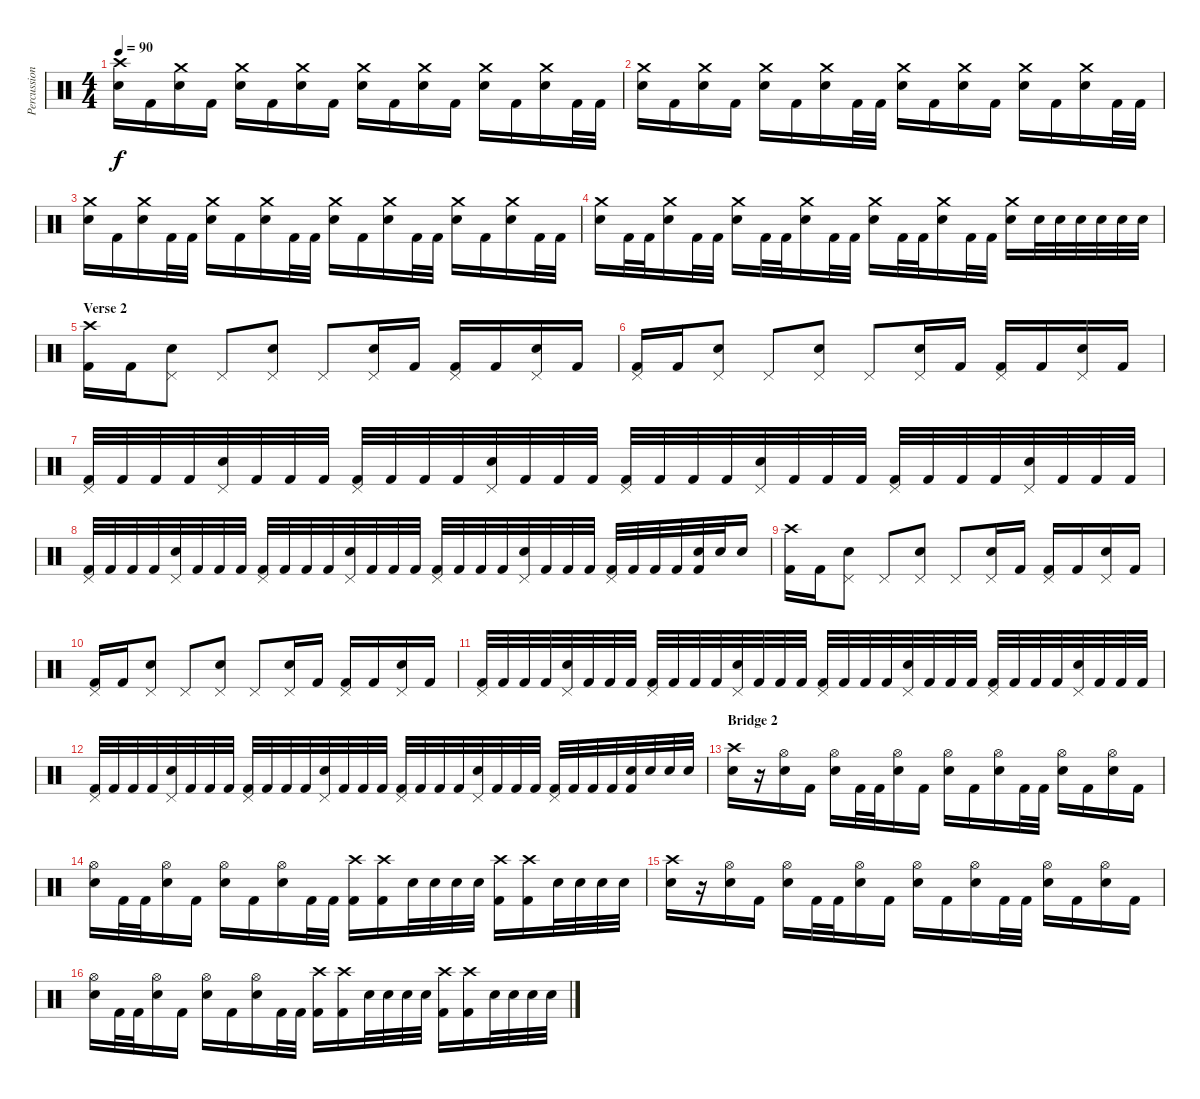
\track ("Percussion" "Percussion") {instrument percussion}
\staff {score}
\articulation defaults
\ts (4 4)
\tempo 90
\clef neutral
\ks c
("Electric Snare (hit)" "Crash high (hit)").16{dy f} "Kick (hit) 2".16 ("Electric Snare (hit)" "Crash medium (hit)").16 "Kick (hit) 2".16 ("Electric Snare (hit)" "Crash medium (hit)").16 "Kick (hit) 2".16 ("Electric Snare (hit)" "Crash medium (hit)").16 "Kick (hit) 2".16 ("Electric Snare (hit)" "Crash medium (hit)").16 "Kick (hit) 2".16 ("Electric Snare (hit)" "Crash medium (hit)").16 "Kick (hit) 2".16 ("Electric Snare (hit)" "Crash medium (hit)").16 "Kick (hit) 2".16 ("Electric Snare (hit)" "Crash medium (hit)").16 "Kick (hit) 2".32 "Kick (hit) 2".32 |
("Electric Snare (hit)" "Crash medium (hit)").16 "Kick (hit) 2".16 ("Electric Snare (hit)" "Crash medium (hit)").16 "Kick (hit) 2".16 ("Electric Snare (hit)" "Crash medium (hit)").16 "Kick (hit) 2".16 ("Electric Snare (hit)" "Crash medium (hit)").16 "Kick (hit) 2".32 "Kick (hit) 2".32 ("Electric Snare (hit)" "Crash medium (hit)").16 "Kick (hit) 2".16 ("Electric Snare (hit)" "Crash medium (hit)").16 "Kick (hit) 2".16 ("Electric Snare (hit)" "Crash medium (hit)").16 "Kick (hit) 2".16 ("Electric Snare (hit)" "Crash medium (hit)").16 "Kick (hit) 2".32 "Kick (hit) 2".32 |
("Electric Snare (hit)" "Crash medium (hit)").16 "Kick (hit) 2".16 ("Electric Snare (hit)" "Crash medium (hit)").16 "Kick (hit) 2".32 "Kick (hit) 2".32 ("Electric Snare (hit)" "Crash medium (hit)").16 "Kick (hit) 2".16 ("Electric Snare (hit)" "Crash medium (hit)").16 "Kick (hit) 2".32 "Kick (hit) 2".32 ("Electric Snare (hit)" "Crash medium (hit)").16 "Kick (hit) 2".16 ("Electric Snare (hit)" "Crash medium (hit)").16 "Kick (hit) 2".32 "Kick (hit) 2".32 ("Electric Snare (hit)" "Crash medium (hit)").16 "Kick (hit) 2".16 ("Electric Snare (hit)" "Crash medium (hit)").16 "Kick (hit) 2".32 "Kick (hit) 2".32 |
("Electric Snare (hit)" "Crash medium (hit)").16 "Kick (hit) 2".32 "Kick (hit) 2".32 ("Electric Snare (hit)" "Crash medium (hit)").16 "Kick (hit) 2".32 "Kick (hit) 2".32 ("Electric Snare (hit)" "Crash medium (hit)").16 "Kick (hit) 2".32 "Kick (hit) 2".32 ("Electric Snare (hit)" "Crash medium (hit)").16 "Kick (hit) 2".32 "Kick (hit) 2".32 ("Electric Snare (hit)" "Crash medium (hit)").16 "Kick (hit) 2".32 "Kick (hit) 2".32 ("Electric Snare (hit)" "Crash medium (hit)").16 "Kick (hit) 2".32 "Kick (hit) 2".32 ("Electric Snare (hit)" "Crash medium (hit)").16 "Electric Snare (hit)".32 "Electric Snare (hit)".32 "Electric Snare (hit)".32 "Electric Snare (hit)".32 "Electric Snare (hit)".32 "Electric Snare (hit)".32 |
\section ("" "Verse 2")
("Kick (hit) 2" "Crash high (hit)").16 "Kick (hit) 2".16 ("Electric Snare (hit)" "Pedal Hi-Hat (hit)").8 "Pedal Hi-Hat (hit)".8 ("Electric Snare (hit)" "Pedal Hi-Hat (hit)").8 "Pedal Hi-Hat (hit)".8 ("Electric Snare (hit)" "Pedal Hi-Hat (hit)").16 "Kick (hit) 2".16 ("Kick (hit) 2" "Pedal Hi-Hat (hit)").16 "Kick (hit) 2".16 ("Electric Snare (hit)" "Pedal Hi-Hat (hit)").16 "Kick (hit) 2".16 |
("Kick (hit) 2" "Pedal Hi-Hat (hit)").16 "Kick (hit) 2".16 ("Electric Snare (hit)" "Pedal Hi-Hat (hit)").8 "Pedal Hi-Hat (hit)".8 ("Electric Snare (hit)" "Pedal Hi-Hat (hit)").8 "Pedal Hi-Hat (hit)".8 ("Electric Snare (hit)" "Pedal Hi-Hat (hit)").16 "Kick (hit) 2".16 ("Kick (hit) 2" "Pedal Hi-Hat (hit)").16 "Kick (hit) 2".16 ("Electric Snare (hit)" "Pedal Hi-Hat (hit)").16 "Kick (hit) 2".16 |
("Kick (hit) 2" "Pedal Hi-Hat (hit)").32 "Kick (hit) 2".32 "Kick (hit) 2".32 "Kick (hit) 2".32 ("Electric Snare (hit)" "Pedal Hi-Hat (hit)").32 "Kick (hit) 2".32 "Kick (hit) 2".32 "Kick (hit) 2".32 ("Kick (hit) 2" "Pedal Hi-Hat (hit)").32 "Kick (hit) 2".32 "Kick (hit) 2".32 "Kick (hit) 2".32 ("Electric Snare (hit)" "Pedal Hi-Hat (hit)").32 "Kick (hit) 2".32 "Kick (hit) 2".32 "Kick (hit) 2".32 ("Kick (hit) 2" "Pedal Hi-Hat (hit)").32 "Kick (hit) 2".32 "Kick (hit) 2".32 "Kick (hit) 2".32 ("Electric Snare (hit)" "Pedal Hi-Hat (hit)").32 "Kick (hit) 2".32 "Kick (hit) 2".32 "Kick (hit) 2".32 ("Kick (hit) 2" "Pedal Hi-Hat (hit)").32 "Kick (hit) 2".32 "Kick (hit) 2".32 "Kick (hit) 2".32 ("Electric Snare (hit)" "Pedal Hi-Hat (hit)").32 "Kick (hit) 2".32 "Kick (hit) 2".32 "Kick (hit) 2".32 |
("Kick (hit) 2" "Pedal Hi-Hat (hit)").32 "Kick (hit) 2".32 "Kick (hit) 2".32 "Kick (hit) 2".32 ("Electric Snare (hit)" "Pedal Hi-Hat (hit)").32 "Kick (hit) 2".32 "Kick (hit) 2".32 "Kick (hit) 2".32 ("Kick (hit) 2" "Pedal Hi-Hat (hit)").32 "Kick (hit) 2".32 "Kick (hit) 2".32 "Kick (hit) 2".32 ("Electric Snare (hit)" "Pedal Hi-Hat (hit)").32 "Kick (hit) 2".32 "Kick (hit) 2".32 "Kick (hit) 2".32 ("Kick (hit) 2" "Pedal Hi-Hat (hit)").32 "Kick (hit) 2".32 "Kick (hit) 2".32 "Kick (hit) 2".32 ("Electric Snare (hit)" "Pedal Hi-Hat (hit)").32 "Kick (hit) 2".32 "Kick (hit) 2".32 "Kick (hit) 2".32 ("Kick (hit) 2" "Pedal Hi-Hat (hit)").32 "Kick (hit) 2".32 "Kick (hit) 2".32 "Kick (hit) 2".32 ("Electric Snare (hit)" "Kick (hit) 2").32 "Electric Snare (hit)".32 "Electric Snare (hit)".16 |
("Kick (hit) 2" "Crash high (hit)").16 "Kick (hit) 2".16 ("Electric Snare (hit)" "Pedal Hi-Hat (hit)").8 "Pedal Hi-Hat (hit)".8 ("Electric Snare (hit)" "Pedal Hi-Hat (hit)").8 "Pedal Hi-Hat (hit)".8 ("Electric Snare (hit)" "Pedal Hi-Hat (hit)").16 "Kick (hit) 2".16 ("Kick (hit) 2" "Pedal Hi-Hat (hit)").16 "Kick (hit) 2".16 ("Electric Snare (hit)" "Pedal Hi-Hat (hit)").16 "Kick (hit) 2".16 |
("Kick (hit) 2" "Pedal Hi-Hat (hit)").16 "Kick (hit) 2".16 ("Electric Snare (hit)" "Pedal Hi-Hat (hit)").8 "Pedal Hi-Hat (hit)".8 ("Electric Snare (hit)" "Pedal Hi-Hat (hit)").8 "Pedal Hi-Hat (hit)".8 ("Electric Snare (hit)" "Pedal Hi-Hat (hit)").16 "Kick (hit) 2".16 ("Kick (hit) 2" "Pedal Hi-Hat (hit)").16 "Kick (hit) 2".16 ("Electric Snare (hit)" "Pedal Hi-Hat (hit)").16 "Kick (hit) 2".16 |
("Kick (hit) 2" "Pedal Hi-Hat (hit)").32 "Kick (hit) 2".32 "Kick (hit) 2".32 "Kick (hit) 2".32 ("Electric Snare (hit)" "Pedal Hi-Hat (hit)").32 "Kick (hit) 2".32 "Kick (hit) 2".32 "Kick (hit) 2".32 ("Kick (hit) 2" "Pedal Hi-Hat (hit)").32 "Kick (hit) 2".32 "Kick (hit) 2".32 "Kick (hit) 2".32 ("Electric Snare (hit)" "Pedal Hi-Hat (hit)").32 "Kick (hit) 2".32 "Kick (hit) 2".32 "Kick (hit) 2".32 ("Kick (hit) 2" "Pedal Hi-Hat (hit)").32 "Kick (hit) 2".32 "Kick (hit) 2".32 "Kick (hit) 2".32 ("Electric Snare (hit)" "Pedal Hi-Hat (hit)").32 "Kick (hit) 2".32 "Kick (hit) 2".32 "Kick (hit) 2".32 ("Kick (hit) 2" "Pedal Hi-Hat (hit)").32 "Kick (hit) 2".32 "Kick (hit) 2".32 "Kick (hit) 2".32 ("Electric Snare (hit)" "Pedal Hi-Hat (hit)").32 "Kick (hit) 2".32 "Kick (hit) 2".32 "Kick (hit) 2".32 |
("Kick (hit) 2" "Pedal Hi-Hat (hit)").32 "Kick (hit) 2".32 "Kick (hit) 2".32 "Kick (hit) 2".32 ("Electric Snare (hit)" "Pedal Hi-Hat (hit)").32 "Kick (hit) 2".32 "Kick (hit) 2".32 "Kick (hit) 2".32 ("Kick (hit) 2" "Pedal Hi-Hat (hit)").32 "Kick (hit) 2".32 "Kick (hit) 2".32 "Kick (hit) 2".32 ("Electric Snare (hit)" "Pedal Hi-Hat (hit)").32 "Kick (hit) 2".32 "Kick (hit) 2".32 "Kick (hit) 2".32 ("Kick (hit) 2" "Pedal Hi-Hat (hit)").32 "Kick (hit) 2".32 "Kick (hit) 2".32 "Kick (hit) 2".32 ("Electric Snare (hit)" "Pedal Hi-Hat (hit)").32 "Kick (hit) 2".32 "Kick (hit) 2".32 "Kick (hit) 2".32 ("Kick (hit) 2" "Pedal Hi-Hat (hit)").32 "Kick (hit) 2".32 "Kick (hit) 2".32 "Kick (hit) 2".32 ("Electric Snare (hit)" "Kick (hit) 2").32 "Electric Snare (hit)".32 "Electric Snare (hit)".32 "Electric Snare (hit)".32 |
\section ("" "Bridge 2")
("Electric Snare (hit)" "Crash high (hit)").16 r.16 ("Electric Snare (hit)" "Hi-Hat (open)").16 "Kick (hit) 2".16 ("Electric Snare (hit)" "Hi-Hat (open)").16 "Kick (hit) 2".32 "Kick (hit) 2".32 ("Electric Snare (hit)" "Hi-Hat (open)").16 "Kick (hit) 2".16 ("Electric Snare (hit)" "Hi-Hat (open)").16 "Kick (hit) 2".16 ("Electric Snare (hit)" "Hi-Hat (open)").16 "Kick (hit) 2".32 "Kick (hit) 2".32 ("Electric Snare (hit)" "Hi-Hat (open)").16 "Kick (hit) 2".16 ("Electric Snare (hit)" "Hi-Hat (open)").16 "Kick (hit) 2".16 |
("Electric Snare (hit)" "Hi-Hat (open)").16 "Kick (hit) 2".32 "Kick (hit) 2".32 ("Electric Snare (hit)" "Hi-Hat (open)").16 "Kick (hit) 2".16 ("Electric Snare (hit)" "Hi-Hat (open)").16 "Kick (hit) 2".16 ("Electric Snare (hit)" "Hi-Hat (open)").16 "Kick (hit) 2".32 "Kick (hit) 2".32 ("Kick (hit) 2" "Crash high (hit)").16 ("Kick (hit) 2" "Crash high (hit)").16 "Electric Snare (hit)".32 "Electric Snare (hit)".32 "Electric Snare (hit)".32 "Electric Snare (hit)".32 ("Kick (hit) 2" "Crash high (hit)").16 ("Kick (hit) 2" "Crash high (hit)").16 "Electric Snare (hit)".32 "Electric Snare (hit)".32 "Electric Snare (hit)".32 "Electric Snare (hit)".32 |
("Electric Snare (hit)" "Crash high (hit)").16 r.16 ("Electric Snare (hit)" "Hi-Hat (open)").16 "Kick (hit) 2".16 ("Electric Snare (hit)" "Hi-Hat (open)").16 "Kick (hit) 2".32 "Kick (hit) 2".32 ("Electric Snare (hit)" "Hi-Hat (open)").16 "Kick (hit) 2".16 ("Electric Snare (hit)" "Hi-Hat (open)").16 "Kick (hit) 2".16 ("Electric Snare (hit)" "Hi-Hat (open)").16 "Kick (hit) 2".32 "Kick (hit) 2".32 ("Electric Snare (hit)" "Hi-Hat (open)").16 "Kick (hit) 2".16 ("Electric Snare (hit)" "Hi-Hat (open)").16 "Kick (hit) 2".16 |
("Electric Snare (hit)" "Hi-Hat (open)").16 "Kick (hit) 2".32 "Kick (hit) 2".32 ("Electric Snare (hit)" "Hi-Hat (open)").16 "Kick (hit) 2".16 ("Electric Snare (hit)" "Hi-Hat (open)").16 "Kick (hit) 2".16 ("Electric Snare (hit)" "Hi-Hat (open)").16 "Kick (hit) 2".32 "Kick (hit) 2".32 ("Kick (hit) 2" "Crash high (hit)").16 ("Kick (hit) 2" "Crash high (hit)").16 "Electric Snare (hit)".32 "Electric Snare (hit)".32 "Electric Snare (hit)".32 "Electric Snare (hit)".32 ("Kick (hit) 2" "Crash high (hit)").16 ("Kick (hit) 2" "Crash high (hit)").16 "Electric Snare (hit)".32 "Electric Snare (hit)".32 "Electric Snare (hit)".32 "Electric Snare (hit)".32
